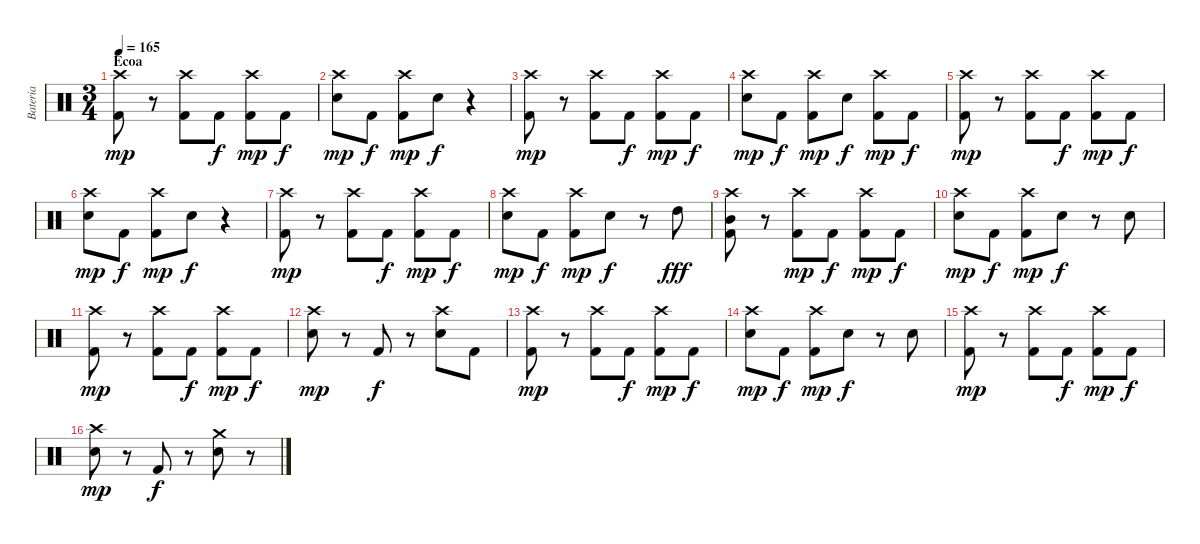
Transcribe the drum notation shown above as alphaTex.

\track ("Bateria" "Bateria") {instrument percussion}
\staff {score}
\articulation defaults
\ts (3 4)
\section ("" "Ecoa")
\tempo 165
\clef neutral
\ks c
("Crash high (hit)" "Kick (hit) 2").8{dy mp} r.8 ("Crash high (hit)" "Kick (hit) 2").8 "Kick (hit) 2".8{dy f} ("Crash high (hit)" "Kick (hit) 2").8{dy mp} "Kick (hit) 2".8{dy f} |
("Crash high (hit)" "Electric Snare (hit)").8{dy mp} "Kick (hit) 2".8{dy f} ("Crash high (hit)" "Kick (hit) 2").8{dy mp} "Electric Snare (hit)".8{dy f} r.4 |
("Crash high (hit)" "Kick (hit) 2").8{dy mp} r.8 ("Crash high (hit)" "Kick (hit) 2").8 "Kick (hit) 2".8{dy f} ("Crash high (hit)" "Kick (hit) 2").8{dy mp} "Kick (hit) 2".8{dy f} |
("Crash high (hit)" "Electric Snare (hit)").8{dy mp} "Kick (hit) 2".8{dy f} ("Crash high (hit)" "Kick (hit) 2").8{dy mp} "Electric Snare (hit)".8{dy f} ("Crash high (hit)" "Kick (hit) 2").8{dy mp} "Kick (hit) 2".8{dy f} |
("Crash high (hit)" "Kick (hit) 2").8{dy mp} r.8 ("Crash high (hit)" "Kick (hit) 2").8 "Kick (hit) 2".8{dy f} ("Crash high (hit)" "Kick (hit) 2").8{dy mp} "Kick (hit) 2".8{dy f} |
("Crash high (hit)" "Electric Snare (hit)").8{dy mp} "Kick (hit) 2".8{dy f} ("Crash high (hit)" "Kick (hit) 2").8{dy mp} "Electric Snare (hit)".8{dy f} r.4 |
("Crash high (hit)" "Kick (hit) 2").8{dy mp} r.8 ("Crash high (hit)" "Kick (hit) 2").8 "Kick (hit) 2".8{dy f} ("Crash high (hit)" "Kick (hit) 2").8{dy mp} "Kick (hit) 2".8{dy f} |
("Crash high (hit)" "Electric Snare (hit)").8{dy mp} "Kick (hit) 2".8{dy f} ("Crash high (hit)" "Kick (hit) 2").8{dy mp} "Electric Snare (hit)".8{dy f} r.8 "High Tom (hit)".8{dy fff} |
("Crash high (hit)" "Mid Tom (hit)" "Kick (hit) 2").8 r.8 ("Crash high (hit)" "Kick (hit) 2").8{dy mp} "Kick (hit) 2".8{dy f} ("Crash high (hit)" "Kick (hit) 2").8{dy mp} "Kick (hit) 2".8{dy f} |
("Crash high (hit)" "Electric Snare (hit)").8{dy mp} "Kick (hit) 2".8{dy f} ("Crash high (hit)" "Kick (hit) 2").8{dy mp} "Electric Snare (hit)".8{dy f} r.8 "Electric Snare (hit)".8 |
("Crash high (hit)" "Kick (hit) 2").8{dy mp} r.8 ("Crash high (hit)" "Kick (hit) 2").8 "Kick (hit) 2".8{dy f} ("Crash high (hit)" "Kick (hit) 2").8{dy mp} "Kick (hit) 2".8{dy f} |
("Crash high (hit)" "Electric Snare (hit)").8{dy mp} r.8 "Kick (hit) 2".8{dy f} r.8 ("Crash high (hit)" "Electric Snare (hit)").8 "Kick (hit) 2".8 |
("Crash high (hit)" "Kick (hit) 2").8{dy mp} r.8 ("Crash high (hit)" "Kick (hit) 2").8 "Kick (hit) 2".8{dy f} ("Crash high (hit)" "Kick (hit) 2").8{dy mp} "Kick (hit) 2".8{dy f} |
("Crash high (hit)" "Electric Snare (hit)").8{dy mp} "Kick (hit) 2".8{dy f} ("Crash high (hit)" "Kick (hit) 2").8{dy mp} "Electric Snare (hit)".8{dy f} r.8 "Electric Snare (hit)".8 |
("Crash high (hit)" "Kick (hit) 2").8{dy mp} r.8 ("Crash high (hit)" "Kick (hit) 2").8 "Kick (hit) 2".8{dy f} ("Crash high (hit)" "Kick (hit) 2").8{dy mp} "Kick (hit) 2".8{dy f} |
("Crash high (hit)" "Electric Snare (hit)").8{dy mp} r.8 "Kick (hit) 2".8{dy f} r.8 ("Crash medium (hit)" "Electric Snare (hit)").8 r.8
